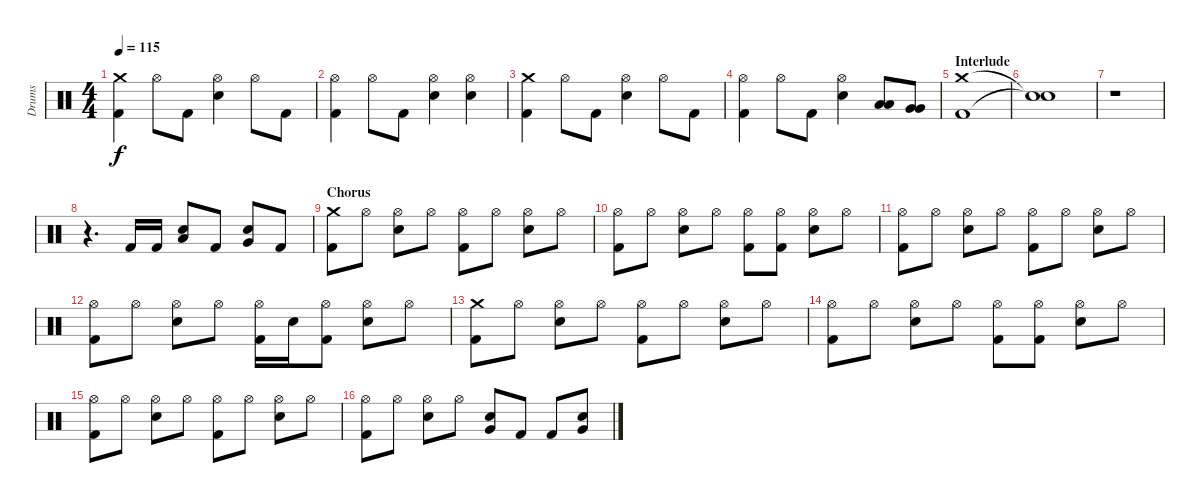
\track ("Drums" "Drums") {instrument percussion}
\staff {score}
\articulation defaults
\ts (4 4)
\tempo 115
\clef neutral
\ks c
("Crash medium (hit)" "Kick (hit) 2").4{dy f} "Hi-Hat (open)".8 "Kick (hit) 2".8 ("Hi-Hat (open)" "Electric Snare (hit)").4 "Hi-Hat (open)".8 "Kick (hit) 2".8 |
("Hi-Hat (open)" "Kick (hit) 2").4 "Hi-Hat (open)".8 "Kick (hit) 2".8 ("Hi-Hat (open)" "Electric Snare (hit)").4 ("Hi-Hat (open)" "Electric Snare (hit)").4 |
("Crash medium (hit)" "Kick (hit) 2").4 "Hi-Hat (open)".8 "Kick (hit) 2".8 ("Hi-Hat (open)" "Electric Snare (hit)").4 "Hi-Hat (open)".8 "Kick (hit) 2".8 |
("Hi-Hat (open)" "Kick (hit) 2").4 "Hi-Hat (open)".8 "Kick (hit) 2".8 ("Hi-Hat (open)" "Electric Snare (hit)").4 ("Low Tom (hit)" "Low Tom (hit)").8 ("Very Low Tom (hit)" "Very Low Tom (hit)").8 |
\section ("" "Interlude")
("Crash medium (hit)" "Kick (hit) 2").1 |
("Snare (hit)"{t} "Snare (hit)"{t}).1 |
r.1 |
r.4{d} "Kick (hit) 2".16 "Kick (hit) 2".16 ("Electric Snare (hit)" "Low Tom (hit)").8 "Kick (hit) 2".8 ("Electric Snare (hit)" "Very Low Tom (hit)").8 "Kick (hit) 2".8 |
\section ("" "Chorus")
("Crash medium (hit)" "Kick (hit) 2").8 "Hi-Hat (open)".8 ("Hi-Hat (open)" "Electric Snare (hit)").8 "Hi-Hat (open)".8 ("Hi-Hat (open)" "Kick (hit) 2").8 "Hi-Hat (open)".8 ("Hi-Hat (open)" "Electric Snare (hit)").8 "Hi-Hat (open)".8 |
("Hi-Hat (open)" "Kick (hit) 2").8 "Hi-Hat (open)".8 ("Hi-Hat (open)" "Electric Snare (hit)").8 "Hi-Hat (open)".8 ("Hi-Hat (open)" "Kick (hit) 2").8 ("Hi-Hat (open)" "Kick (hit) 2").8 ("Hi-Hat (open)" "Electric Snare (hit)").8 "Hi-Hat (open)".8 |
("Hi-Hat (open)" "Kick (hit) 2").8 "Hi-Hat (open)".8 ("Hi-Hat (open)" "Electric Snare (hit)").8 "Hi-Hat (open)".8 ("Hi-Hat (open)" "Kick (hit) 2").8 "Hi-Hat (open)".8 ("Hi-Hat (open)" "Electric Snare (hit)").8 "Hi-Hat (open)".8 |
("Hi-Hat (open)" "Kick (hit) 2").8 "Hi-Hat (open)".8 ("Hi-Hat (open)" "Electric Snare (hit)").8 "Hi-Hat (open)".8 ("Hi-Hat (open)" "Kick (hit) 2").16 "Electric Snare (hit)".16 ("Hi-Hat (open)" "Kick (hit) 2").8 ("Hi-Hat (open)" "Electric Snare (hit)").8 "Hi-Hat (open)".8 |
("Crash medium (hit)" "Kick (hit) 2").8 "Hi-Hat (open)".8 ("Hi-Hat (open)" "Electric Snare (hit)").8 "Hi-Hat (open)".8 ("Hi-Hat (open)" "Kick (hit) 2").8 "Hi-Hat (open)".8 ("Hi-Hat (open)" "Electric Snare (hit)").8 "Hi-Hat (open)".8 |
("Hi-Hat (open)" "Kick (hit) 2").8 "Hi-Hat (open)".8 ("Hi-Hat (open)" "Electric Snare (hit)").8 "Hi-Hat (open)".8 ("Hi-Hat (open)" "Kick (hit) 2").8 ("Hi-Hat (open)" "Kick (hit) 2").8 ("Hi-Hat (open)" "Electric Snare (hit)").8 "Hi-Hat (open)".8 |
("Hi-Hat (open)" "Kick (hit) 2").8 "Hi-Hat (open)".8 ("Hi-Hat (open)" "Electric Snare (hit)").8 "Hi-Hat (open)".8 ("Hi-Hat (open)" "Kick (hit) 2").8 "Hi-Hat (open)".8 ("Hi-Hat (open)" "Electric Snare (hit)").8 "Hi-Hat (open)".8 |
("Hi-Hat (open)" "Kick (hit) 2").8 "Hi-Hat (open)".8 ("Hi-Hat (open)" "Electric Snare (hit)").8 "Hi-Hat (open)".8 ("Electric Snare (hit)" "Very Low Tom (hit)").8 "Kick (hit) 2".8 "Kick (hit) 2".8 ("Electric Snare (hit)" "Very Low Tom (hit)").8
